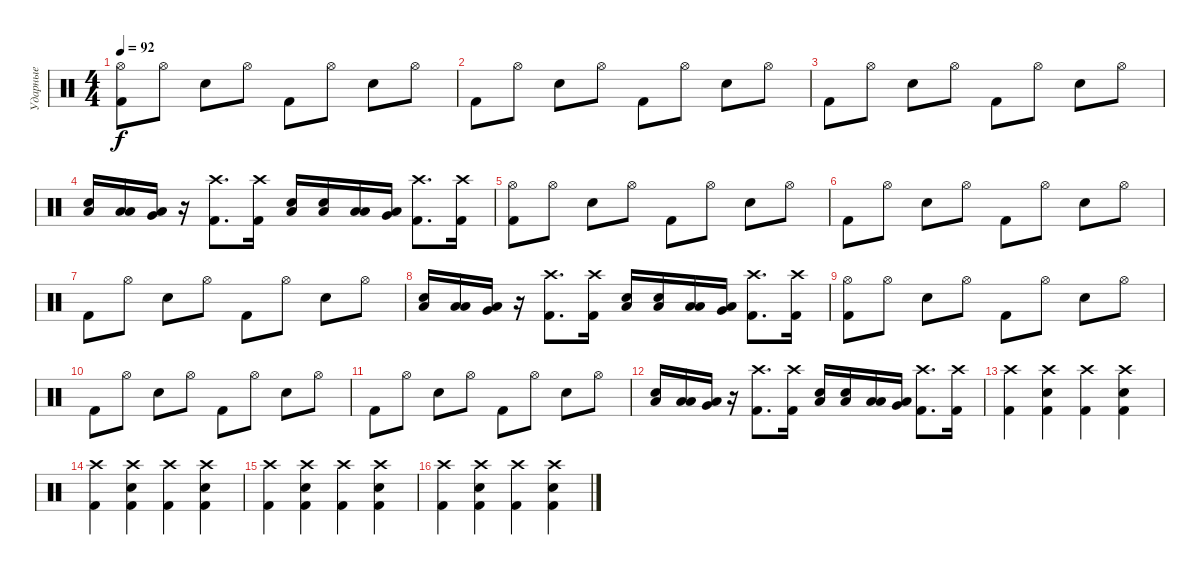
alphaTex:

\track ("Ударные" "Ударные") {instrument percussion}
\staff {score}
\articulation defaults
\ts (4 4)
\tempo 92
\clef neutral
\ks c
("Kick (hit) 2" "Hi-Hat (open)").8{dy f} "Hi-Hat (open)".8 "Snare (hit) 2".8 "Hi-Hat (open)".8 "Kick (hit) 2".8 "Hi-Hat (open)".8 "Snare (hit) 2".8 "Hi-Hat (open)".8 |
"Kick (hit) 2".8 "Hi-Hat (open)".8 "Snare (hit) 2".8 "Hi-Hat (open)".8 "Kick (hit) 2".8 "Hi-Hat (open)".8 "Snare (hit) 2".8 "Hi-Hat (open)".8 |
"Kick (hit) 2".8 "Hi-Hat (open)".8 "Snare (hit) 2".8 "Hi-Hat (open)".8 "Kick (hit) 2".8 "Hi-Hat (open)".8 "Snare (hit) 2".8 "Hi-Hat (open)".8 |
("Snare (hit) 2" "Low Floor Tom (hit)").16 ("Low Tom (hit)" "Low Floor Tom (hit)").16 ("Very Low Tom (hit)" "Low Floor Tom (hit)").16 r.16 ("Kick (hit) 2" "Crash high (hit)").8{d} ("Kick (hit) 2" "Crash high (hit)").16 ("Snare (hit) 2" "Low Floor Tom (hit)").16 ("Snare (hit) 2" "Low Floor Tom (hit)").16 ("Low Tom (hit)" "Low Floor Tom (hit)").16 ("Very Low Tom (hit)" "Low Floor Tom (hit)").16 ("Kick (hit) 2" "Crash high (hit)").8{d} ("Kick (hit) 2" "Crash high (hit)").16 |
("Kick (hit) 2" "Hi-Hat (open)").8 "Hi-Hat (open)".8 "Snare (hit) 2".8 "Hi-Hat (open)".8 "Kick (hit) 2".8 "Hi-Hat (open)".8 "Snare (hit) 2".8 "Hi-Hat (open)".8 |
"Kick (hit) 2".8 "Hi-Hat (open)".8 "Snare (hit) 2".8 "Hi-Hat (open)".8 "Kick (hit) 2".8 "Hi-Hat (open)".8 "Snare (hit) 2".8 "Hi-Hat (open)".8 |
"Kick (hit) 2".8 "Hi-Hat (open)".8 "Snare (hit) 2".8 "Hi-Hat (open)".8 "Kick (hit) 2".8 "Hi-Hat (open)".8 "Snare (hit) 2".8 "Hi-Hat (open)".8 |
("Snare (hit) 2" "Low Floor Tom (hit)").16 ("Low Tom (hit)" "Low Floor Tom (hit)").16 ("Very Low Tom (hit)" "Low Floor Tom (hit)").16 r.16 ("Kick (hit) 2" "Crash high (hit)").8{d} ("Kick (hit) 2" "Crash high (hit)").16 ("Snare (hit) 2" "Low Floor Tom (hit)").16 ("Snare (hit) 2" "Low Floor Tom (hit)").16 ("Low Tom (hit)" "Low Floor Tom (hit)").16 ("Very Low Tom (hit)" "Low Floor Tom (hit)").16 ("Kick (hit) 2" "Crash high (hit)").8{d} ("Kick (hit) 2" "Crash high (hit)").16 |
("Kick (hit) 2" "Hi-Hat (open)").8 "Hi-Hat (open)".8 "Snare (hit) 2".8 "Hi-Hat (open)".8 "Kick (hit) 2".8 "Hi-Hat (open)".8 "Snare (hit) 2".8 "Hi-Hat (open)".8 |
"Kick (hit) 2".8 "Hi-Hat (open)".8 "Snare (hit) 2".8 "Hi-Hat (open)".8 "Kick (hit) 2".8 "Hi-Hat (open)".8 "Snare (hit) 2".8 "Hi-Hat (open)".8 |
"Kick (hit) 2".8 "Hi-Hat (open)".8 "Snare (hit) 2".8 "Hi-Hat (open)".8 "Kick (hit) 2".8 "Hi-Hat (open)".8 "Snare (hit) 2".8 "Hi-Hat (open)".8 |
("Snare (hit) 2" "Low Floor Tom (hit)").16 ("Low Tom (hit)" "Low Floor Tom (hit)").16 ("Very Low Tom (hit)" "Low Floor Tom (hit)").16 r.16 ("Kick (hit) 2" "Crash high (hit)").8{d} ("Kick (hit) 2" "Crash high (hit)").16 ("Snare (hit) 2" "Low Floor Tom (hit)").16 ("Snare (hit) 2" "Low Floor Tom (hit)").16 ("Low Tom (hit)" "Low Floor Tom (hit)").16 ("Very Low Tom (hit)" "Low Floor Tom (hit)").16 ("Kick (hit) 2" "Crash high (hit)").8{d} ("Kick (hit) 2" "Crash high (hit)").16 |
("Kick (hit) 2" "Crash high (hit)").4 ("Kick (hit) 2" "Snare (hit) 2" "Crash high (hit)").4 ("Kick (hit) 2" "Crash high (hit)").4 ("Kick (hit) 2" "Snare (hit) 2" "Crash high (hit)").4 |
("Kick (hit) 2" "Crash high (hit)").4 ("Kick (hit) 2" "Snare (hit) 2" "Crash high (hit)").4 ("Kick (hit) 2" "Crash high (hit)").4 ("Kick (hit) 2" "Snare (hit) 2" "Crash high (hit)").4 |
("Kick (hit) 2" "Crash high (hit)").4 ("Kick (hit) 2" "Snare (hit) 2" "Crash high (hit)").4 ("Kick (hit) 2" "Crash high (hit)").4 ("Kick (hit) 2" "Snare (hit) 2" "Crash high (hit)").4 |
("Kick (hit) 2" "Crash high (hit)").4 ("Kick (hit) 2" "Snare (hit) 2" "Crash high (hit)").4 ("Kick (hit) 2" "Crash high (hit)").4 ("Kick (hit) 2" "Snare (hit) 2" "Crash high (hit)").4
